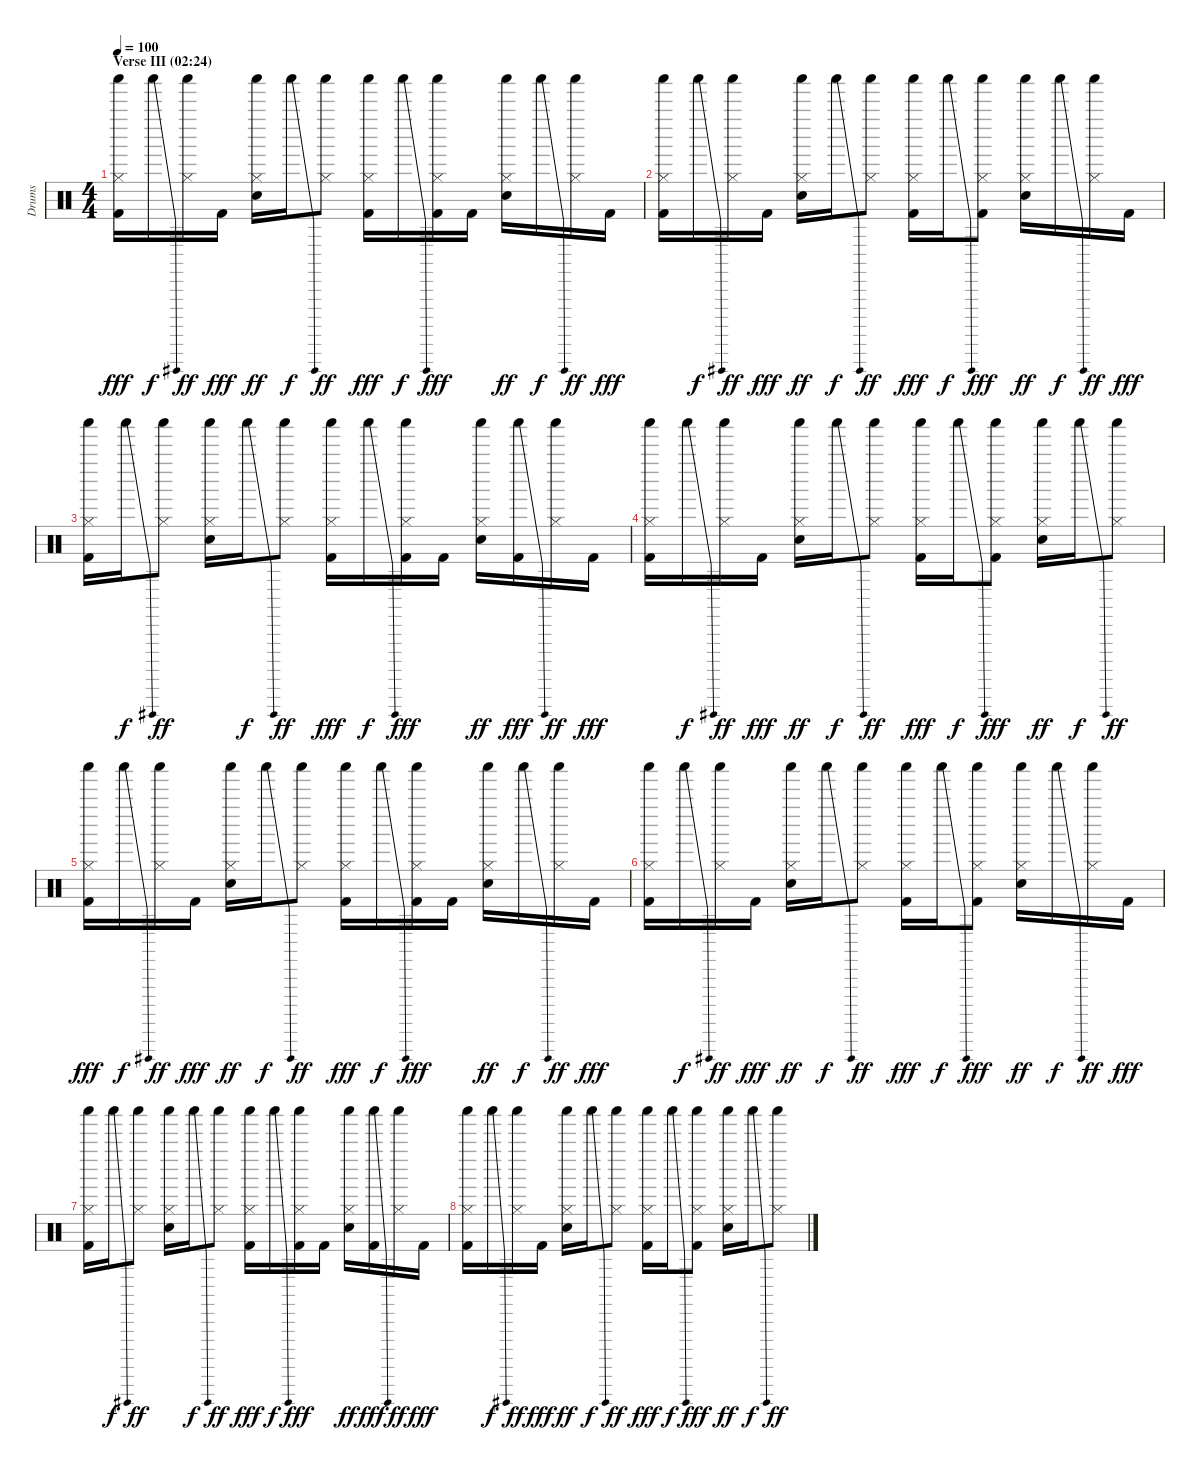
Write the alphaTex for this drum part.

\track ("Drums" "Drums") {instrument percussion}
\staff {score}
\articulation defaults
\ts (4 4)
\section ("" "Verse III (02:24)")
\tempo 100
\clef neutral
\ks c
("Shaker (hit)" "Hi-Hat (closed)" "Kick (hit) 2").16{dy fff} "Shaker (hit)"{be (bend 0 0 60 12)}.16{dy f} ("Shaker (hit)" "Hi-Hat (closed)").16{dy ff} "Kick (hit) 2".16{dy fff} ("Shaker (hit)" "Hi-Hat (closed)" "Electric Snare (hit)").16{dy ff} "Shaker (hit)"{be (bend 0 0 60 12)}.16{dy f} ("Shaker (hit)" "Hi-Hat (closed)").8{dy ff} ("Shaker (hit)" "Hi-Hat (closed)" "Kick (hit) 2").16{dy fff} "Shaker (hit)"{be (bend 0 0 60 12)}.16{dy f} ("Shaker (hit)" "Hi-Hat (closed)" "Kick (hit) 2").16{dy fff} "Kick (hit) 2".16 ("Shaker (hit)" "Hi-Hat (closed)" "Electric Snare (hit)").16{dy ff} "Shaker (hit)"{be (bend 0 0 60 12)}.16{dy f} ("Shaker (hit)" "Hi-Hat (closed)").16{dy ff} "Kick (hit) 2".16{dy fff} |
("Shaker (hit)" "Hi-Hat (closed)" "Kick (hit) 2").16 "Shaker (hit)"{be (bend 0 0 60 12)}.16{dy f} ("Shaker (hit)" "Hi-Hat (closed)").16{dy ff} "Kick (hit) 2".16{dy fff} ("Shaker (hit)" "Hi-Hat (closed)" "Electric Snare (hit)").16{dy ff} "Shaker (hit)"{be (bend 0 0 60 12)}.16{dy f} ("Shaker (hit)" "Hi-Hat (closed)").8{dy ff} ("Shaker (hit)" "Hi-Hat (closed)" "Kick (hit) 2").16{dy fff} "Shaker (hit)"{be (bend 0 0 60 12)}.16{dy f} ("Shaker (hit)" "Hi-Hat (closed)" "Kick (hit) 2").8{dy fff} ("Shaker (hit)" "Hi-Hat (closed)" "Electric Snare (hit)").16{dy ff} "Shaker (hit)"{be (bend 0 0 60 12)}.16{dy f} ("Shaker (hit)" "Hi-Hat (closed)").16{dy ff} "Kick (hit) 2".16{dy fff} |
("Shaker (hit)" "Hi-Hat (closed)" "Kick (hit) 2").16 "Shaker (hit)"{be (bend 0 0 60 12)}.16{dy f} ("Shaker (hit)" "Hi-Hat (closed)").8{dy ff} ("Shaker (hit)" "Hi-Hat (closed)" "Electric Snare (hit)").16 "Shaker (hit)"{be (bend 0 0 60 12)}.16{dy f} ("Shaker (hit)" "Hi-Hat (closed)").8{dy ff} ("Shaker (hit)" "Hi-Hat (closed)" "Kick (hit) 2").16{dy fff} "Shaker (hit)"{be (bend 0 0 60 12)}.16{dy f} ("Shaker (hit)" "Hi-Hat (closed)" "Kick (hit) 2").16{dy fff} "Kick (hit) 2".16 ("Shaker (hit)" "Hi-Hat (closed)" "Electric Snare (hit)").16{dy ff} ("Shaker (hit)"{be (bend 0 0 60 12)} "Kick (hit) 2").16{dy fff} ("Shaker (hit)" "Hi-Hat (closed)").16{dy ff} "Kick (hit) 2".16{dy fff} |
("Shaker (hit)" "Hi-Hat (closed)" "Kick (hit) 2").16 "Shaker (hit)"{be (bend 0 0 60 12)}.16{dy f} ("Shaker (hit)" "Hi-Hat (closed)").16{dy ff} "Kick (hit) 2".16{dy fff} ("Shaker (hit)" "Hi-Hat (closed)" "Electric Snare (hit)").16{dy ff} "Shaker (hit)"{be (bend 0 0 60 12)}.16{dy f} ("Shaker (hit)" "Hi-Hat (closed)").8{dy ff} ("Shaker (hit)" "Hi-Hat (closed)" "Kick (hit) 2").16{dy fff} "Shaker (hit)"{be (bend 0 0 60 12)}.16{dy f} ("Shaker (hit)" "Hi-Hat (closed)" "Kick (hit) 2").8{dy fff} ("Shaker (hit)" "Hi-Hat (closed)" "Electric Snare (hit)").16{dy ff} "Shaker (hit)"{be (bend 0 0 60 12)}.16{dy f} ("Shaker (hit)" "Hi-Hat (closed)").8{dy ff} |
("Shaker (hit)" "Hi-Hat (closed)" "Kick (hit) 2").16{dy fff} "Shaker (hit)"{be (bend 0 0 60 12)}.16{dy f} ("Shaker (hit)" "Hi-Hat (closed)").16{dy ff} "Kick (hit) 2".16{dy fff} ("Shaker (hit)" "Hi-Hat (closed)" "Electric Snare (hit)").16{dy ff} "Shaker (hit)"{be (bend 0 0 60 12)}.16{dy f} ("Shaker (hit)" "Hi-Hat (closed)").8{dy ff} ("Shaker (hit)" "Hi-Hat (closed)" "Kick (hit) 2").16{dy fff} "Shaker (hit)"{be (bend 0 0 60 12)}.16{dy f} ("Shaker (hit)" "Hi-Hat (closed)" "Kick (hit) 2").16{dy fff} "Kick (hit) 2".16 ("Shaker (hit)" "Hi-Hat (closed)" "Electric Snare (hit)").16{dy ff} "Shaker (hit)"{be (bend 0 0 60 12)}.16{dy f} ("Shaker (hit)" "Hi-Hat (closed)").16{dy ff} "Kick (hit) 2".16{dy fff} |
("Shaker (hit)" "Hi-Hat (closed)" "Kick (hit) 2").16 "Shaker (hit)"{be (bend 0 0 60 12)}.16{dy f} ("Shaker (hit)" "Hi-Hat (closed)").16{dy ff} "Kick (hit) 2".16{dy fff} ("Shaker (hit)" "Hi-Hat (closed)" "Electric Snare (hit)").16{dy ff} "Shaker (hit)"{be (bend 0 0 60 12)}.16{dy f} ("Shaker (hit)" "Hi-Hat (closed)").8{dy ff} ("Shaker (hit)" "Hi-Hat (closed)" "Kick (hit) 2").16{dy fff} "Shaker (hit)"{be (bend 0 0 60 12)}.16{dy f} ("Shaker (hit)" "Hi-Hat (closed)" "Kick (hit) 2").8{dy fff} ("Shaker (hit)" "Hi-Hat (closed)" "Electric Snare (hit)").16{dy ff} "Shaker (hit)"{be (bend 0 0 60 12)}.16{dy f} ("Shaker (hit)" "Hi-Hat (closed)").16{dy ff} "Kick (hit) 2".16{dy fff} |
("Shaker (hit)" "Hi-Hat (closed)" "Kick (hit) 2").16 "Shaker (hit)"{be (bend 0 0 60 12)}.16{dy f} ("Shaker (hit)" "Hi-Hat (closed)").8{dy ff} ("Shaker (hit)" "Hi-Hat (closed)" "Electric Snare (hit)").16 "Shaker (hit)"{be (bend 0 0 60 12)}.16{dy f} ("Shaker (hit)" "Hi-Hat (closed)").8{dy ff} ("Shaker (hit)" "Hi-Hat (closed)" "Kick (hit) 2").16{dy fff} "Shaker (hit)"{be (bend 0 0 60 12)}.16{dy f} ("Shaker (hit)" "Hi-Hat (closed)" "Kick (hit) 2").16{dy fff} "Kick (hit) 2".16 ("Shaker (hit)" "Hi-Hat (closed)" "Electric Snare (hit)").16{dy ff} ("Shaker (hit)"{be (bend 0 0 60 12)} "Kick (hit) 2").16{dy fff} ("Shaker (hit)" "Hi-Hat (closed)").16{dy ff} "Kick (hit) 2".16{dy fff} |
("Shaker (hit)" "Hi-Hat (closed)" "Kick (hit) 2").16 "Shaker (hit)"{be (bend 0 0 60 12)}.16{dy f} ("Shaker (hit)" "Hi-Hat (closed)").16{dy ff} "Kick (hit) 2".16{dy fff} ("Shaker (hit)" "Hi-Hat (closed)" "Electric Snare (hit)").16{dy ff} "Shaker (hit)"{be (bend 0 0 60 12)}.16{dy f} ("Shaker (hit)" "Hi-Hat (closed)").8{dy ff} ("Shaker (hit)" "Hi-Hat (closed)" "Kick (hit) 2").16{dy fff} "Shaker (hit)"{be (bend 0 0 60 12)}.16{dy f} ("Shaker (hit)" "Hi-Hat (closed)" "Kick (hit) 2").8{dy fff} ("Shaker (hit)" "Hi-Hat (closed)" "Electric Snare (hit)").16{dy ff} "Shaker (hit)"{be (bend 0 0 60 12)}.16{dy f} ("Shaker (hit)" "Hi-Hat (closed)").8{dy ff}
